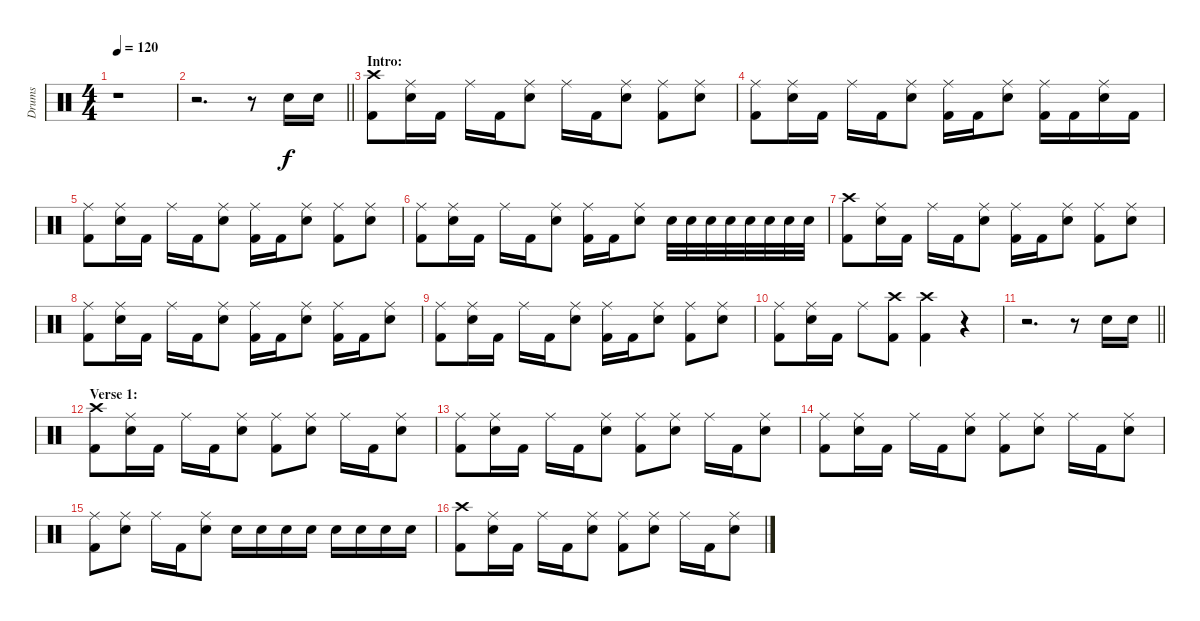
\track ("Drums" "Drums") {instrument percussion}
\staff {score}
\articulation defaults
\ts (4 4)
\tempo 120
\clef neutral
\ks c
r.1{dy f} |
\barLineRight lightlight
r.2{d} r.8 "Electric Snare (hit)".16 "Electric Snare (hit)".16 |
\section ("" "Intro:")
("Crash high (hit)" "Kick (hit) 2").8 ("Ride (middle)" "Electric Snare (hit)").16 "Kick (hit) 2".16 "Ride (middle)".16 "Kick (hit) 2".16 ("Ride (middle)" "Electric Snare (hit)").8 "Ride (middle)".16 "Kick (hit) 2".16 ("Ride (middle)" "Electric Snare (hit)").8 ("Ride (middle)" "Kick (hit) 2").8 ("Ride (middle)" "Electric Snare (hit)").8 |
("Ride (middle)" "Kick (hit) 2").8 ("Ride (middle)" "Electric Snare (hit)").16 "Kick (hit) 2".16 "Ride (middle)".16 "Kick (hit) 2".16 ("Ride (middle)" "Electric Snare (hit)").8 ("Ride (middle)" "Kick (hit) 2").16 "Kick (hit) 2".16 ("Ride (middle)" "Electric Snare (hit)").8 ("Ride (middle)" "Kick (hit) 2").16 "Kick (hit) 2".16 ("Ride (middle)" "Electric Snare (hit)").16 "Kick (hit) 2".16 |
("Ride (middle)" "Kick (hit) 2").8 ("Ride (middle)" "Electric Snare (hit)").16 "Kick (hit) 2".16 "Ride (middle)".16 "Kick (hit) 2".16 ("Ride (middle)" "Electric Snare (hit)").8 ("Ride (middle)" "Kick (hit) 2").16 "Kick (hit) 2".16 ("Ride (middle)" "Electric Snare (hit)").8 ("Ride (middle)" "Kick (hit) 2").8 ("Ride (middle)" "Electric Snare (hit)").8 |
("Ride (middle)" "Kick (hit) 2").8 ("Ride (middle)" "Electric Snare (hit)").16 "Kick (hit) 2".16 "Ride (middle)".16 "Kick (hit) 2".16 ("Ride (middle)" "Electric Snare (hit)").8 ("Ride (middle)" "Kick (hit) 2").16 "Kick (hit) 2".16 ("Ride (middle)" "Electric Snare (hit)").8 "Electric Snare (hit)".32 "Electric Snare (hit)".32 "Electric Snare (hit)".32 "Electric Snare (hit)".32 "Electric Snare (hit)".32 "Electric Snare (hit)".32 "Electric Snare (hit)".32 "Electric Snare (hit)".32 |
("Crash high (hit)" "Kick (hit) 2").8 ("Ride (middle)" "Electric Snare (hit)").16 "Kick (hit) 2".16 "Ride (middle)".16 "Kick (hit) 2".16 ("Ride (middle)" "Electric Snare (hit)").8 ("Ride (middle)" "Kick (hit) 2").16 "Kick (hit) 2".16 ("Ride (middle)" "Electric Snare (hit)").8 ("Ride (middle)" "Kick (hit) 2").8 ("Ride (middle)" "Electric Snare (hit)").8 |
("Ride (middle)" "Kick (hit) 2").8 ("Ride (middle)" "Electric Snare (hit)").16 "Kick (hit) 2".16 "Ride (middle)".16 "Kick (hit) 2".16 ("Ride (middle)" "Electric Snare (hit)").8 ("Ride (middle)" "Kick (hit) 2").16 "Kick (hit) 2".16 ("Ride (middle)" "Electric Snare (hit)").8 ("Ride (middle)" "Kick (hit) 2").16 "Kick (hit) 2".16 ("Ride (middle)" "Electric Snare (hit)").8 |
("Ride (middle)" "Kick (hit) 2").8 ("Ride (middle)" "Electric Snare (hit)").16 "Kick (hit) 2".16 "Ride (middle)".16 "Kick (hit) 2".16 ("Ride (middle)" "Electric Snare (hit)").8 ("Ride (middle)" "Kick (hit) 2").16 "Kick (hit) 2".16 ("Ride (middle)" "Electric Snare (hit)").8 ("Ride (middle)" "Kick (hit) 2").8 ("Ride (middle)" "Electric Snare (hit)").8 |
("Ride (middle)" "Kick (hit) 2").8 ("Ride (middle)" "Electric Snare (hit)").16 "Kick (hit) 2".16 "Ride (middle)".8 ("Crash high (hit)" "Kick (hit) 2").8 ("Crash high (hit)" "Kick (hit) 2").4 r.4 |
\barLineRight lightlight
r.2{d} r.8 "Electric Snare (hit)".16 "Electric Snare (hit)".16 |
\section ("" "Verse 1:")
("Crash high (hit)" "Kick (hit) 2").8 ("Ride (middle)" "Electric Snare (hit)").16 "Kick (hit) 2".16 "Ride (middle)".16 "Kick (hit) 2".16 ("Ride (middle)" "Electric Snare (hit)").8 ("Ride (middle)" "Kick (hit) 2").8 ("Ride (middle)" "Electric Snare (hit)").8 "Ride (middle)".16 "Kick (hit) 2".16 ("Ride (middle)" "Electric Snare (hit)").8 |
("Ride (middle)" "Kick (hit) 2").8 ("Ride (middle)" "Electric Snare (hit)").16 "Kick (hit) 2".16 "Ride (middle)".16 "Kick (hit) 2".16 ("Ride (middle)" "Electric Snare (hit)").8 ("Ride (middle)" "Kick (hit) 2").8 ("Ride (middle)" "Electric Snare (hit)").8 "Ride (middle)".16 "Kick (hit) 2".16 ("Ride (middle)" "Electric Snare (hit)").8 |
("Ride (middle)" "Kick (hit) 2").8 ("Ride (middle)" "Electric Snare (hit)").16 "Kick (hit) 2".16 "Ride (middle)".16 "Kick (hit) 2".16 ("Ride (middle)" "Electric Snare (hit)").8 ("Ride (middle)" "Kick (hit) 2").8 ("Ride (middle)" "Electric Snare (hit)").8 "Ride (middle)".16 "Kick (hit) 2".16 ("Ride (middle)" "Electric Snare (hit)").8 |
("Ride (middle)" "Kick (hit) 2").8 ("Ride (middle)" "Electric Snare (hit)").8 "Ride (middle)".16 "Kick (hit) 2".16 ("Ride (middle)" "Electric Snare (hit)").8 "Electric Snare (hit)".16 "Electric Snare (hit)".16 "Electric Snare (hit)".16 "Electric Snare (hit)".16 "Electric Snare (hit)".16 "Electric Snare (hit)".16 "Electric Snare (hit)".16 "Electric Snare (hit)".16 |
("Crash high (hit)" "Kick (hit) 2").8 ("Ride (middle)" "Electric Snare (hit)").16 "Kick (hit) 2".16 "Ride (middle)".16 "Kick (hit) 2".16 ("Ride (middle)" "Electric Snare (hit)").8 ("Ride (middle)" "Kick (hit) 2").8 ("Ride (middle)" "Electric Snare (hit)").8 "Ride (middle)".16 "Kick (hit) 2".16 ("Ride (middle)" "Electric Snare (hit)").8
